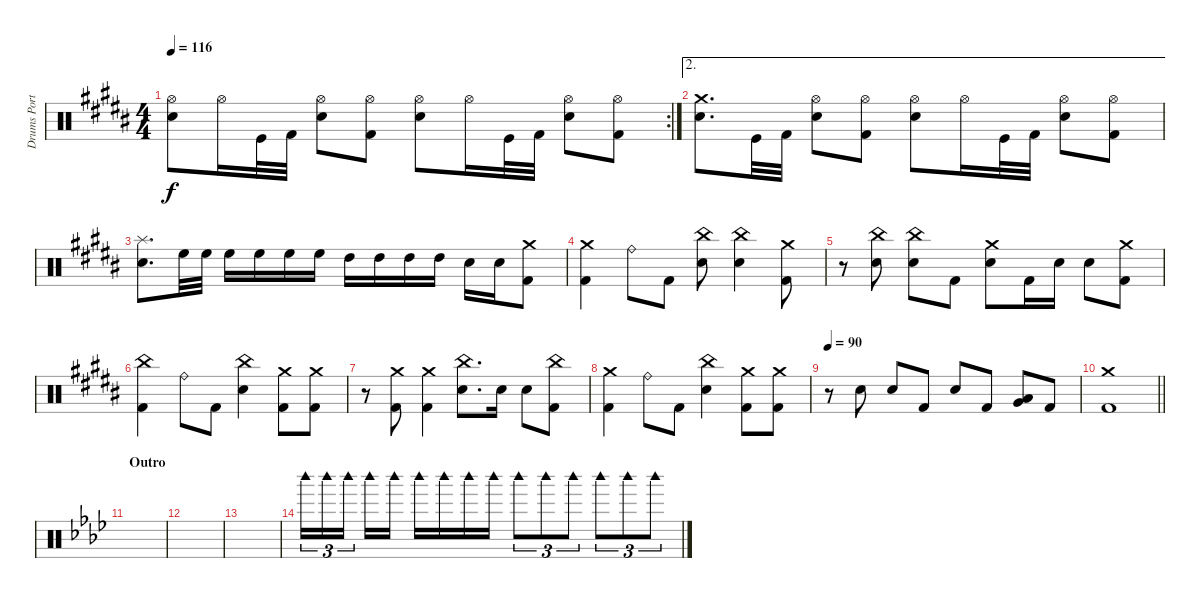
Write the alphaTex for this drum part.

\track ("Drums Portnoy" "Drums Port") {instrument percussion}
\staff {score}
\articulation defaults
\rc 2
\ts (4 4)
\tempo 116
\clef neutral
\ks g#minor
("Hi-Hat (open)" "Snare (hit) 2").8{dy f} "Hi-Hat (open)".16 "Kick (hit)".32 "Kick (hit) 2".32 ("Hi-Hat (open)" "Snare (hit) 2").8 ("Hi-Hat (open)" "Kick (hit) 2").8 ("Hi-Hat (open)" "Snare (hit) 2").8 "Hi-Hat (open)".16 "Kick (hit)".32 "Kick (hit) 2".32 ("Hi-Hat (open)" "Snare (hit) 2").8 ("Hi-Hat (open)" "Kick (hit) 2").8 |
\ae 2
\ks b
("Crash medium (hit)" "Snare (hit) 2").8{d} "Kick (hit)".32 "Kick (hit) 2".32 ("Hi-Hat (open)" "Snare (hit) 2").8 ("Hi-Hat (open)" "Kick (hit) 2").8 ("Hi-Hat (open)" "Snare (hit) 2").8 "Hi-Hat (open)".16 "Kick (hit)".32 "Kick (hit) 2".32 ("Hi-Hat (open)" "Snare (hit) 2").8 ("Hi-Hat (open)" "Kick (hit) 2").8 |
\ks g#minor
("Splash (hit)" "Snare (hit) 2").8{d} "High Floor Tom (hit)".32 "High Floor Tom (hit)".32 "High Floor Tom (hit)".16 "High Floor Tom (hit)".16 "High Floor Tom (hit)".16 "High Floor Tom (hit)".16 "High Tom (hit)".16 "High Tom (hit)".16 "High Tom (hit)".16 "High Tom (hit)".16 "Snare (hit) 2".16 "Snare (hit) 2".16 ("Crash medium (hit)" "Kick (hit) 2").8 |
\ks b
("Crash medium (hit)" "Kick (hit) 2").4 "Ride (bell)".8 "Kick (hit) 2".8 ("China (hit)" "Snare (hit) 2").8 ("China (hit)" "Snare (hit) 2").4 ("Crash medium (hit)" "Kick (hit) 2").8 |
\ks g#minor
r.8 ("China (hit)" "Snare (hit) 2").8 ("China (hit)" "Snare (hit) 2").8 "Kick (hit) 2".8 ("Crash medium (hit)" "Snare (hit) 2").8 "Kick (hit) 2".16 "Snare (hit) 2".16 "Snare (hit) 2".8 ("Crash medium (hit)" "Kick (hit) 2").8 |
("China (hit)" "Kick (hit) 2").4 "Ride (bell)".8 "Kick (hit) 2".8 ("China (hit)" "Snare (hit) 2").4 ("Crash medium (hit)" "Kick (hit) 2").8 ("Crash medium (hit)" "Kick (hit) 2").8 |
r.8 ("Crash medium (hit)" "Kick (hit) 2").8 ("Crash medium (hit)" "Kick (hit) 2").4 ("China (hit)" "Snare (hit) 2").8{d} "Snare (hit) 2".16 "Snare (hit) 2".8 ("China (hit)" "Kick (hit) 2").8 |
\ks b
("Crash medium (hit)" "Kick (hit) 2").4 "Ride (bell)".8 "Kick (hit) 2".8 ("China (hit)" "Snare (hit) 2").4 ("Crash medium (hit)" "Kick (hit) 2").8 ("Crash medium (hit)" "Kick (hit) 2").8 |
\tempo 90
\ks g#minor
r.8 "Snare (hit) 2".8 "Snare (hit) 2".8 "Kick (hit) 2".8 "Snare (hit) 2".8 "Kick (hit) 2".8 ("Low Tom (hit)" "Very Low Tom (hit)").8 "Kick (hit) 2".8 |
\barLineRight lightlight
("Crash medium (hit)" "Kick (hit) 2").1 |
\section ("" "Outro")
\ks ab
|
|
|
"Woodblock high (hit)".16{tu (3 2)} "Woodblock high (hit)".16{tu (3 2)} "Woodblock high (hit)".16{tu (3 2) beam splitsecondary} "Woodblock high (hit)".16 "Woodblock high (hit)".16 "Woodblock high (hit)".16 "Woodblock high (hit)".16 "Woodblock high (hit)".16 "Woodblock high (hit)".16 "Woodblock high (hit)".8{tu (3 2)} "Woodblock high (hit)".8{tu (3 2)} "Woodblock high (hit)".8{tu (3 2)} "Woodblock high (hit)".8{tu (3 2)} "Woodblock high (hit)".8{tu (3 2)} "Woodblock high (hit)".8{tu (3 2)}
